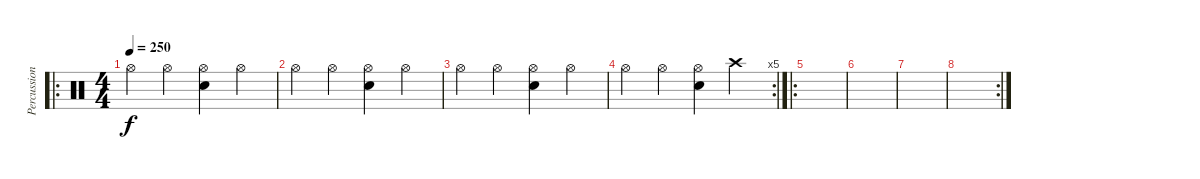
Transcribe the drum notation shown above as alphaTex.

\track ("Percussion" "Percussion") {instrument percussion}
\staff {score}
\articulation defaults
\ro
\ts (4 4)
\tempo 250
\clef neutral
\ks c "Hi-Hat (open)".4{dy f} "Hi-Hat (open)".4
("Hi-Hat (open)" "Snare (hit) 2").4 "Hi-Hat (open)".4 |
"Hi-Hat (open)".4 "Hi-Hat (open)".4 ("Hi-Hat (open)" "Snare (hit) 2").4 "Hi-Hat (open)".4 |
"Hi-Hat (open)".4 "Hi-Hat (open)".4 ("Hi-Hat (open)" "Snare (hit) 2").4 "Hi-Hat (open)".4 |
\rc 5 "Hi-Hat (open)".4 "Hi-Hat (open)".4
("Hi-Hat (open)" "Snare (hit) 2").4 "Crash high (hit)".4 |
\ro
|
|
|
\rc 2
